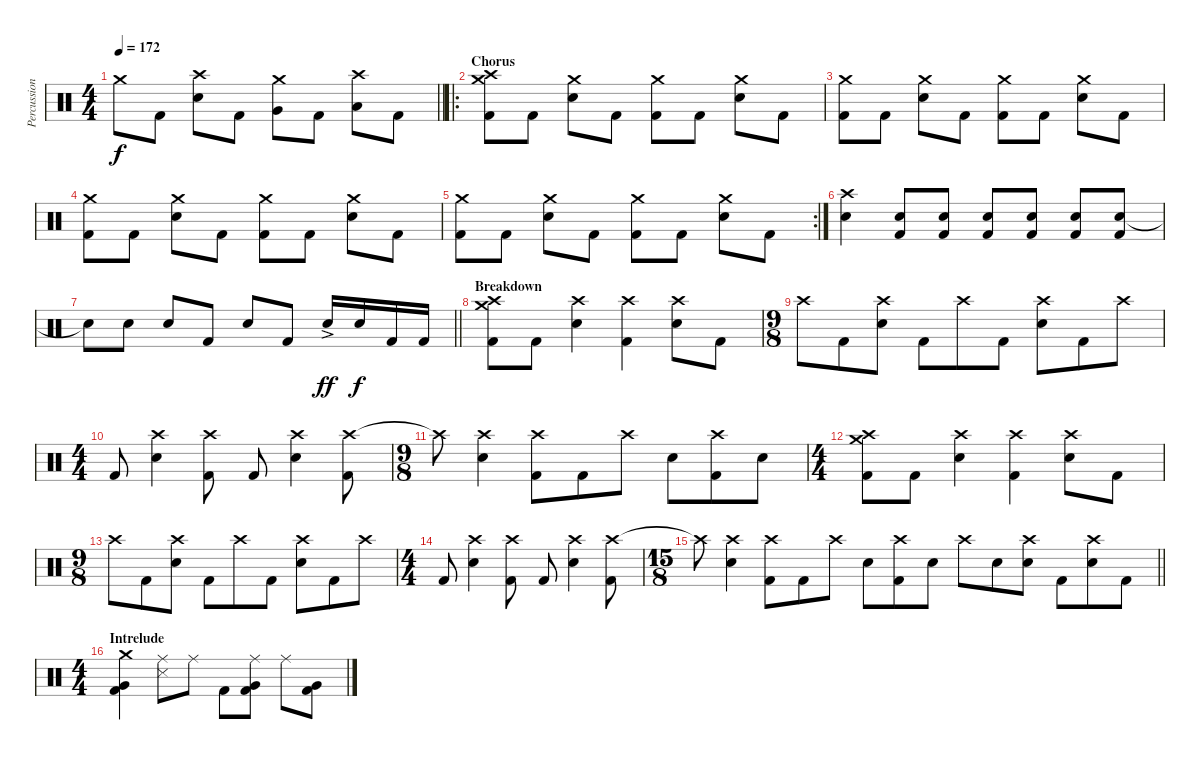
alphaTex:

\track ("Percussion" "Percussion") {instrument percussion}
\staff {score}
\articulation defaults
\ts (4 4)
\tempo 172
\clef neutral
\barLineRight lightlight
\ks aminor "Crash medium (hit)".8{dy f} "Kick (hit) 2".8
("Crash high (hit)" "Electric Snare (hit)").8 "Kick (hit) 2".8 ("Crash medium (hit)" "Very Low Tom (hit)").8 "Kick (hit) 2".8 ("Crash high (hit)" "Low Floor Tom (hit)").8 "Kick (hit) 2".8 |
\ro
\section ("" "Chorus")
("Crash medium (hit)" "Crash high (hit)" "Kick (hit) 2").8 "Kick (hit) 2".8 ("Crash medium (hit)" "Electric Snare (hit)").8 "Kick (hit) 2".8 ("Crash medium (hit)" "Kick (hit) 2").8 "Kick (hit) 2".8 ("Crash medium (hit)" "Electric Snare (hit)").8 "Kick (hit) 2".8 |
("Crash medium (hit)" "Kick (hit) 2").8 "Kick (hit) 2".8 ("Crash medium (hit)" "Electric Snare (hit)").8 "Kick (hit) 2".8 ("Crash medium (hit)" "Kick (hit) 2").8 "Kick (hit) 2".8 ("Crash medium (hit)" "Electric Snare (hit)").8 "Kick (hit) 2".8 |
("Crash medium (hit)" "Kick (hit) 2").8 "Kick (hit) 2".8 ("Crash medium (hit)" "Electric Snare (hit)").8 "Kick (hit) 2".8 ("Crash medium (hit)" "Kick (hit) 2").8 "Kick (hit) 2".8 ("Crash medium (hit)" "Electric Snare (hit)").8 "Kick (hit) 2".8 |
\rc 2
("Crash medium (hit)" "Kick (hit) 2").8 "Kick (hit) 2".8 ("Crash medium (hit)" "Electric Snare (hit)").8 "Kick (hit) 2".8 ("Crash medium (hit)" "Kick (hit) 2").8 "Kick (hit) 2".8 ("Crash medium (hit)" "Electric Snare (hit)").8 "Kick (hit) 2".8 |
("Crash high (hit)" "Electric Snare (hit)").4 ("Electric Snare (hit)" "Kick (hit) 2").8{volume 6} ("Electric Snare (hit)" "Kick (hit) 2").8{volume 14} ("Electric Snare (hit)" "Kick (hit) 2").8 ("Electric Snare (hit)" "Kick (hit) 2").8 ("Electric Snare (hit)" "Kick (hit) 2").8 ("Electric Snare (hit)" "Kick (hit) 2").8 |
\barLineRight lightlight "Electric Snare (hit)"{t}.8 "Electric Snare (hit)".8 "Electric Snare (hit)".8 "Kick (hit) 2".8 "Electric Snare (hit)".8 "Kick (hit) 2".8 "Electric Snare (hit)"{ac}.16{dy ff} "Electric Snare (hit)".16{dy f} "Kick (hit) 2".16 "Kick (hit) 2".16
|
\section ("" "Breakdown")
("Crash medium (hit)" "Crash high (hit)" "Kick (hit) 2").8 "Kick (hit) 2".8 ("Crash high (hit)" "Electric Snare (hit)").4 ("Crash high (hit)" "Kick (hit) 2").4 ("Crash high (hit)" "Electric Snare (hit)").8 "Kick (hit) 2".8 |
\ts (9 8)
"Crash high (hit)".8 "Kick (hit) 2".8 ("Crash high (hit)" "Electric Snare (hit)").8 "Kick (hit) 2".8 "Crash high (hit)".8 "Kick (hit) 2".8 ("Crash high (hit)" "Electric Snare (hit)").8 "Kick (hit) 2".8 "Crash high (hit)".8 |
\ts (4 4)
"Kick (hit) 2".8 ("Crash high (hit)" "Electric Snare (hit)").4 ("Crash high (hit)" "Kick (hit) 2").8 "Kick (hit) 2".8 ("Crash high (hit)" "Electric Snare (hit)").4 ("Crash high (hit)" "Kick (hit) 2").8 |
\ts (9 8)
"Crash high (hit)"{t}.8 ("Crash high (hit)" "Electric Snare (hit)").4 ("Crash high (hit)" "Kick (hit) 2").8 "Kick (hit) 2".8 "Crash high (hit)".8 "Electric Snare (hit)".8 ("Crash high (hit)" "Kick (hit) 2").8 "Electric Snare (hit)".8 |
\ts (4 4)
("Crash medium (hit)" "Crash high (hit)" "Kick (hit) 2").8 "Kick (hit) 2".8 ("Crash high (hit)" "Electric Snare (hit)").4 ("Crash high (hit)" "Kick (hit) 2").4 ("Crash high (hit)" "Electric Snare (hit)").8 "Kick (hit) 2".8 |
\ts (9 8)
"Crash high (hit)".8 "Kick (hit) 2".8 ("Crash high (hit)" "Electric Snare (hit)").8 "Kick (hit) 2".8 "Crash high (hit)".8 "Kick (hit) 2".8 ("Crash high (hit)" "Electric Snare (hit)").8 "Kick (hit) 2".8 "Crash high (hit)".8 |
\ts (4 4)
"Kick (hit) 2".8 ("Crash high (hit)" "Electric Snare (hit)").4 ("Crash high (hit)" "Kick (hit) 2").8 "Kick (hit) 2".8 ("Crash high (hit)" "Electric Snare (hit)").4 ("Crash high (hit)" "Kick (hit) 2").8 |
\ts (15 8)
\barLineRight lightlight "Crash high (hit)"{t}.8
("Crash high (hit)" "Electric Snare (hit)").4 ("Crash high (hit)" "Kick (hit) 2").8 "Kick (hit) 2".8 "Crash high (hit)".8 "Electric Snare (hit)".8 ("Crash high (hit)" "Kick (hit) 2").8 "Electric Snare (hit)".8 "Crash high (hit)".8 "Electric Snare (hit)".8 ("Crash high (hit)" "Electric Snare (hit)").8 "Kick (hit) 2".8 ("Crash high (hit)" "Electric Snare (hit)").8 "Kick (hit) 2".8 |
\ts (4 4)
\section ("" "Intrelude")
("Crash medium (hit)" "Very Low Tom (hit)" "Kick (hit) 2").4{volume 12} ("Ride (middle)" "Snare (side stick) 3").8 "Ride (middle)".8 "Kick (hit) 2".8 ("Ride (middle)" "Very Low Tom (hit)" "Kick (hit) 2").8 "Ride (middle)".8 ("Very Low Tom (hit)" "Kick (hit) 2").8
